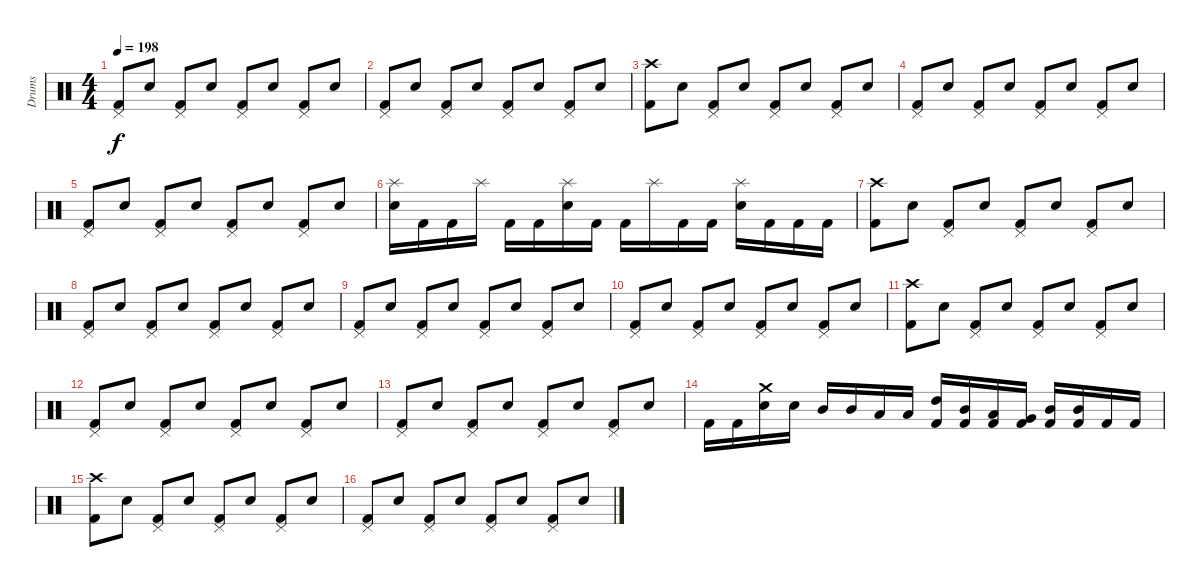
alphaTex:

\track ("Drums" "Drums") {instrument percussion}
\staff {score}
\articulation defaults
\ts (4 4)
\tempo 198
\clef neutral
\ks c
("Pedal Hi-Hat (hit)" "Kick (hit) 2").8{dy f} "Electric Snare (hit)".8 ("Pedal Hi-Hat (hit)" "Kick (hit) 2").8 "Electric Snare (hit)".8 ("Pedal Hi-Hat (hit)" "Kick (hit) 2").8 "Electric Snare (hit)".8 ("Pedal Hi-Hat (hit)" "Kick (hit) 2").8 "Electric Snare (hit)".8 |
("Pedal Hi-Hat (hit)" "Kick (hit) 2").8 "Electric Snare (hit)".8 ("Pedal Hi-Hat (hit)" "Kick (hit) 2").8 "Electric Snare (hit)".8 ("Pedal Hi-Hat (hit)" "Kick (hit) 2").8 "Electric Snare (hit)".8 ("Pedal Hi-Hat (hit)" "Kick (hit) 2").8 "Electric Snare (hit)".8 |
("Crash high (hit)" "Kick (hit) 2").8 "Electric Snare (hit)".8 ("Pedal Hi-Hat (hit)" "Kick (hit) 2").8 "Electric Snare (hit)".8 ("Pedal Hi-Hat (hit)" "Kick (hit) 2").8 "Electric Snare (hit)".8 ("Pedal Hi-Hat (hit)" "Kick (hit) 2").8 "Electric Snare (hit)".8 |
("Pedal Hi-Hat (hit)" "Kick (hit) 2").8 "Electric Snare (hit)".8 ("Pedal Hi-Hat (hit)" "Kick (hit) 2").8 "Electric Snare (hit)".8 ("Pedal Hi-Hat (hit)" "Kick (hit) 2").8 "Electric Snare (hit)".8 ("Pedal Hi-Hat (hit)" "Kick (hit) 2").8 "Electric Snare (hit)".8 |
("Pedal Hi-Hat (hit)" "Kick (hit) 2").8 "Electric Snare (hit)".8 ("Pedal Hi-Hat (hit)" "Kick (hit) 2").8 "Electric Snare (hit)".8 ("Pedal Hi-Hat (hit)" "Kick (hit) 2").8 "Electric Snare (hit)".8 ("Pedal Hi-Hat (hit)" "Kick (hit) 2").8 "Electric Snare (hit)".8 |
("Splash (hit)" "Electric Snare (hit)").16 "Kick (hit) 2".16 "Kick (hit) 2".16 "Splash (hit)".16 "Kick (hit) 2".16 "Kick (hit) 2".16 ("Splash (hit)" "Electric Snare (hit)").16 "Kick (hit) 2".16 "Kick (hit) 2".16 "Splash (hit)".16 "Kick (hit) 2".16 "Kick (hit) 2".16 ("Splash (hit)" "Electric Snare (hit)").16 "Kick (hit) 2".16 "Kick (hit) 2".16 "Kick (hit) 2".16 |
("Crash high (hit)" "Kick (hit) 2").8 "Electric Snare (hit)".8 ("Pedal Hi-Hat (hit)" "Kick (hit) 2").8 "Electric Snare (hit)".8 ("Pedal Hi-Hat (hit)" "Kick (hit) 2").8 "Electric Snare (hit)".8 ("Pedal Hi-Hat (hit)" "Kick (hit) 2").8 "Electric Snare (hit)".8 |
("Pedal Hi-Hat (hit)" "Kick (hit) 2").8 "Electric Snare (hit)".8 ("Pedal Hi-Hat (hit)" "Kick (hit) 2").8 "Electric Snare (hit)".8 ("Pedal Hi-Hat (hit)" "Kick (hit) 2").8 "Electric Snare (hit)".8 ("Pedal Hi-Hat (hit)" "Kick (hit) 2").8 "Electric Snare (hit)".8 |
("Pedal Hi-Hat (hit)" "Kick (hit) 2").8 "Electric Snare (hit)".8 ("Pedal Hi-Hat (hit)" "Kick (hit) 2").8 "Electric Snare (hit)".8 ("Pedal Hi-Hat (hit)" "Kick (hit) 2").8 "Electric Snare (hit)".8 ("Pedal Hi-Hat (hit)" "Kick (hit) 2").8 "Electric Snare (hit)".8 |
("Pedal Hi-Hat (hit)" "Kick (hit) 2").8 "Electric Snare (hit)".8 ("Pedal Hi-Hat (hit)" "Kick (hit) 2").8 "Electric Snare (hit)".8 ("Pedal Hi-Hat (hit)" "Kick (hit) 2").8 "Electric Snare (hit)".8 ("Pedal Hi-Hat (hit)" "Kick (hit) 2").8 "Electric Snare (hit)".8 |
("Crash high (hit)" "Kick (hit) 2").8 "Electric Snare (hit)".8 ("Pedal Hi-Hat (hit)" "Kick (hit) 2").8 "Electric Snare (hit)".8 ("Pedal Hi-Hat (hit)" "Kick (hit) 2").8 "Electric Snare (hit)".8 ("Pedal Hi-Hat (hit)" "Kick (hit) 2").8 "Electric Snare (hit)".8 |
("Pedal Hi-Hat (hit)" "Kick (hit) 2").8 "Electric Snare (hit)".8 ("Pedal Hi-Hat (hit)" "Kick (hit) 2").8 "Electric Snare (hit)".8 ("Pedal Hi-Hat (hit)" "Kick (hit) 2").8 "Electric Snare (hit)".8 ("Pedal Hi-Hat (hit)" "Kick (hit) 2").8 "Electric Snare (hit)".8 |
("Pedal Hi-Hat (hit)" "Kick (hit) 2").8 "Electric Snare (hit)".8 ("Pedal Hi-Hat (hit)" "Kick (hit) 2").8 "Electric Snare (hit)".8 ("Pedal Hi-Hat (hit)" "Kick (hit) 2").8 "Electric Snare (hit)".8 ("Pedal Hi-Hat (hit)" "Kick (hit) 2").8 "Electric Snare (hit)".8 |
"Kick (hit) 2".16 "Kick (hit) 2".16 ("Crash medium (hit)" "Electric Snare (hit)").16 "Electric Snare (hit)".16 "Mid Tom (hit)".16 "Mid Tom (hit)".16 "Low Tom (hit)".16 "Low Tom (hit)".16 ("High Tom (hit)" "Kick (hit) 2").16 ("Mid Tom (hit)" "Kick (hit) 2").16 ("Low Tom (hit)" "Kick (hit) 2").16 ("Very Low Tom (hit)" "Kick (hit) 2").16 ("Mid Tom (hit)" "Kick (hit) 2").16 ("Mid Tom (hit)" "Kick (hit) 2").16 "Kick (hit) 2".16 "Kick (hit) 2".16 |
("Crash high (hit)" "Kick (hit) 2").8 "Electric Snare (hit)".8 ("Pedal Hi-Hat (hit)" "Kick (hit) 2").8 "Electric Snare (hit)".8 ("Pedal Hi-Hat (hit)" "Kick (hit) 2").8 "Electric Snare (hit)".8 ("Pedal Hi-Hat (hit)" "Kick (hit) 2").8 "Electric Snare (hit)".8 |
("Pedal Hi-Hat (hit)" "Kick (hit) 2").8 "Electric Snare (hit)".8 ("Pedal Hi-Hat (hit)" "Kick (hit) 2").8 "Electric Snare (hit)".8 ("Pedal Hi-Hat (hit)" "Kick (hit) 2").8 "Electric Snare (hit)".8 ("Pedal Hi-Hat (hit)" "Kick (hit) 2").8 "Electric Snare (hit)".8
